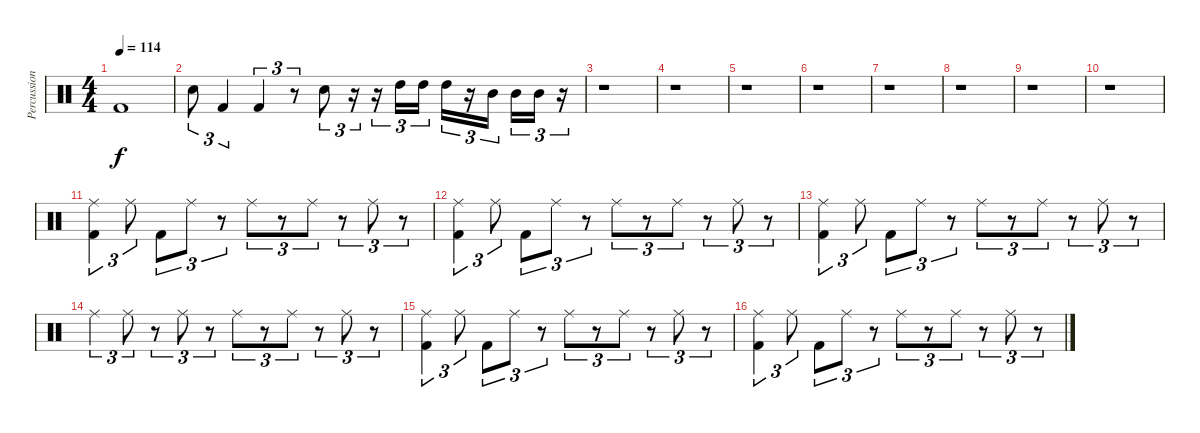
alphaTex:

\track ("Percussion" "Percussion") {instrument percussion}
\staff {score}
\articulation defaults
\ts (4 4)
\tempo 114
\clef neutral
\ks c "Kick (hit) 2".1{dy f}
|
"Electric Snare (hit)".8{tu (3 2)} "Kick (hit) 2".4{tu (3 2)} "Kick (hit) 2".4{tu (3 2)} r.8{tu (3 2)} "Electric Snare (hit)".8{tu (3 2)} r.16{tu (3 2)} r.16{tu (3 2)} "High Tom (hit)".16{tu (3 2)} "High Tom (hit)".16{tu (3 2)} "High Tom (hit)".16{tu (3 2)} r.16{tu (3 2)} "Mid Tom (hit)".16{tu (3 2) beam splitsecondary} "Mid Tom (hit)".16{tu (3 2)} "Mid Tom (hit)".16{tu (3 2)} r.16{tu (3 2)} |
r.1 |
r.1 |
r.1 |
r.1 |
r.1 |
r.1 |
r.1 |
r.1 |
("Ride (middle)" "Kick (hit) 2").4{tu (3 2)} "Ride (middle)".8{tu (3 2)} "Kick (hit) 2".8{tu (3 2)} "Ride (middle)".8{tu (3 2)} r.8{tu (3 2)} "Ride (middle)".8{tu (3 2)} r.8{tu (3 2)} "Ride (middle)".8{tu (3 2)} r.8{tu (3 2)} "Ride (middle)".8{tu (3 2)} r.8{tu (3 2)} |
("Ride (middle)" "Kick (hit) 2").4{tu (3 2)} "Ride (middle)".8{tu (3 2)} "Kick (hit) 2".8{tu (3 2)} "Ride (middle)".8{tu (3 2)} r.8{tu (3 2)} "Ride (middle)".8{tu (3 2)} r.8{tu (3 2)} "Ride (middle)".8{tu (3 2)} r.8{tu (3 2)} "Ride (middle)".8{tu (3 2)} r.8{tu (3 2)} |
("Ride (middle)" "Kick (hit) 2").4{tu (3 2)} "Ride (middle)".8{tu (3 2)} "Kick (hit) 2".8{tu (3 2)} "Ride (middle)".8{tu (3 2)} r.8{tu (3 2)} "Ride (middle)".8{tu (3 2)} r.8{tu (3 2)} "Ride (middle)".8{tu (3 2)} r.8{tu (3 2)} "Ride (middle)".8{tu (3 2)} r.8{tu (3 2)} |
"Ride (middle)".4{tu (3 2)} "Ride (middle)".8{tu (3 2)} r.8{tu (3 2)} "Ride (middle)".8{tu (3 2)} r.8{tu (3 2)} "Ride (middle)".8{tu (3 2)} r.8{tu (3 2)} "Ride (middle)".8{tu (3 2)} r.8{tu (3 2)} "Ride (middle)".8{tu (3 2)} r.8{tu (3 2)} |
("Ride (middle)" "Kick (hit) 2").4{tu (3 2)} "Ride (middle)".8{tu (3 2)} "Kick (hit) 2".8{tu (3 2)} "Ride (middle)".8{tu (3 2)} r.8{tu (3 2)} "Ride (middle)".8{tu (3 2)} r.8{tu (3 2)} "Ride (middle)".8{tu (3 2)} r.8{tu (3 2)} "Ride (middle)".8{tu (3 2)} r.8{tu (3 2)} |
("Ride (middle)" "Kick (hit) 2").4{tu (3 2)} "Ride (middle)".8{tu (3 2)} "Kick (hit) 2".8{tu (3 2)} "Ride (middle)".8{tu (3 2)} r.8{tu (3 2)} "Ride (middle)".8{tu (3 2)} r.8{tu (3 2)} "Ride (middle)".8{tu (3 2)} r.8{tu (3 2)} "Ride (middle)".8{tu (3 2)} r.8{tu (3 2)}
